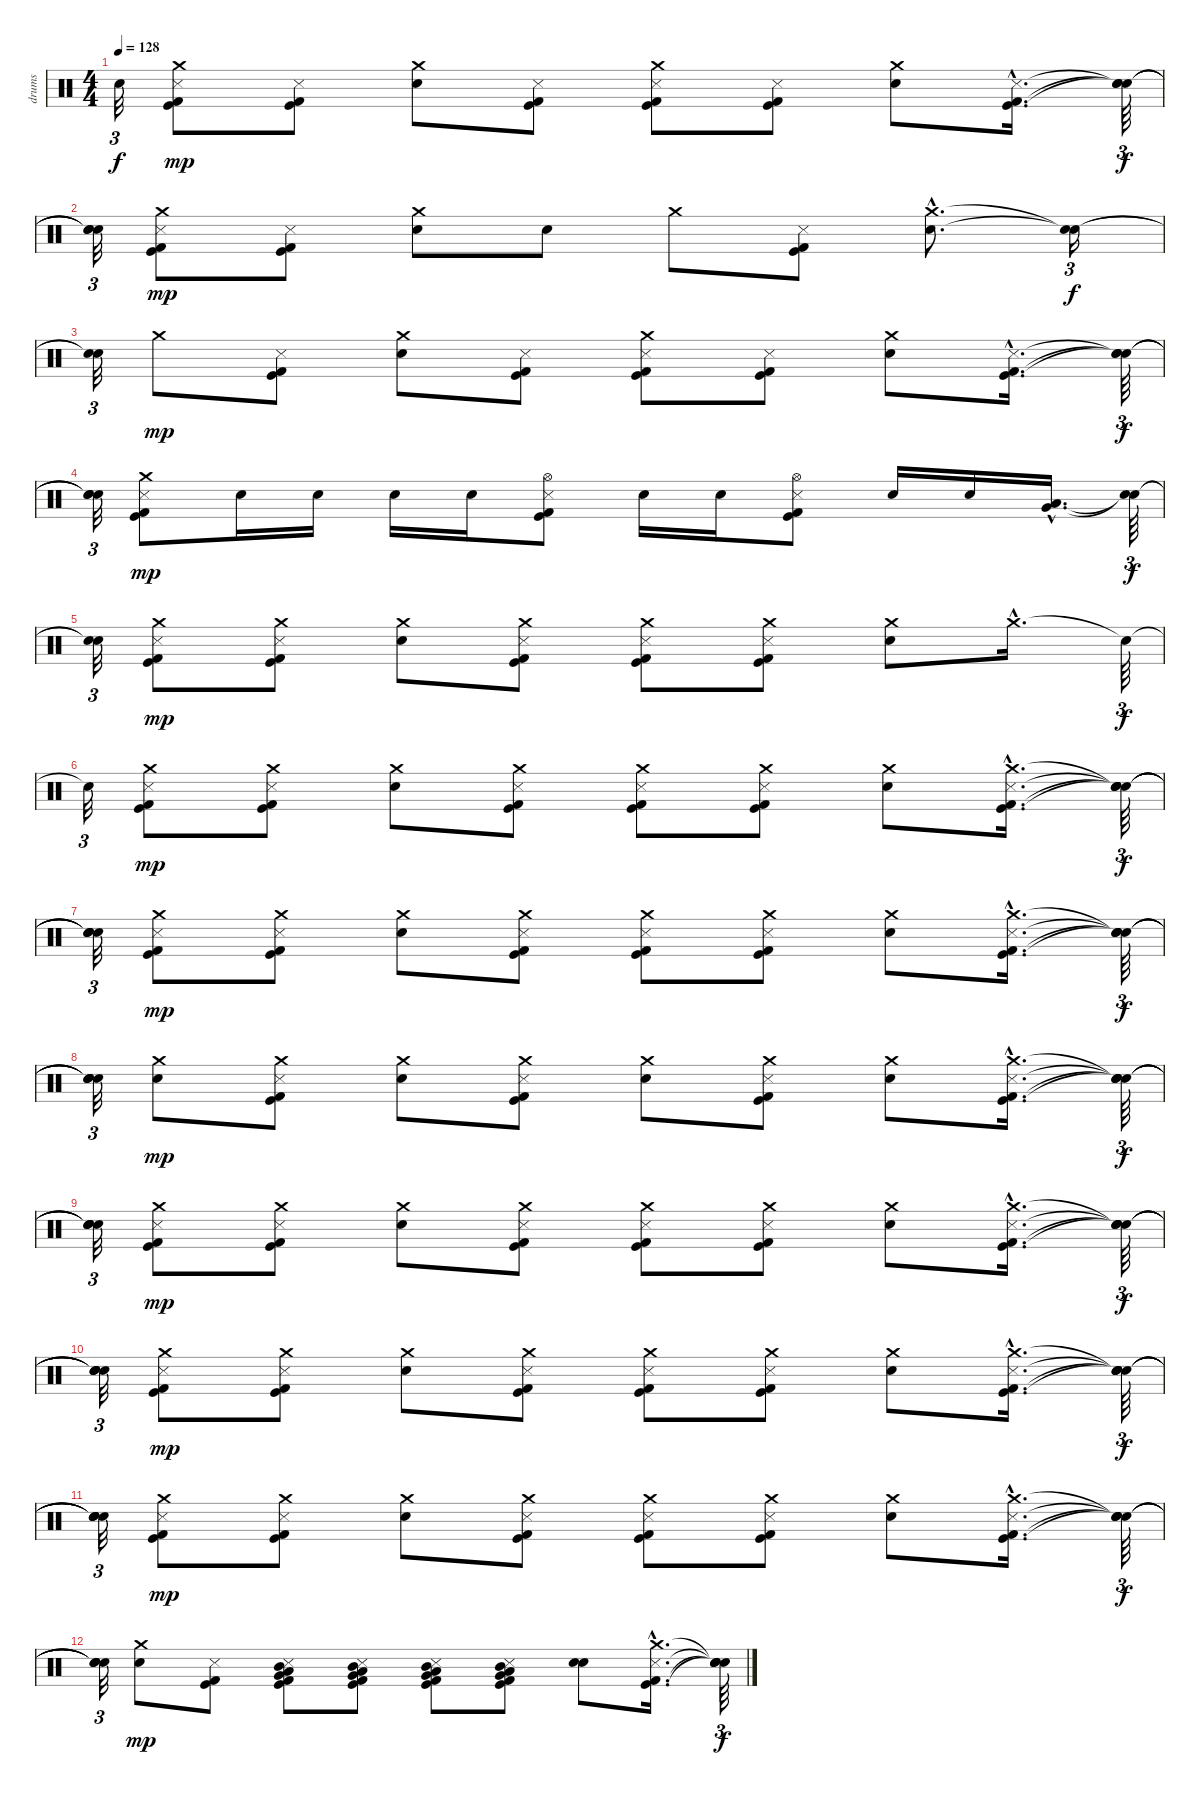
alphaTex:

\track ("drums" "drums") {instrument percussion}
\staff {score}
\articulation defaults
\ts (4 4)
\tempo 128
\clef neutral
\ks c "Snare (hit)"{t}.32{tu (3 2) dy f}
("Crash medium (hit)" "Metronome (hit)" "Kick (hit)" "Kick (hit) 2").8{dy mp} ("Metronome (hit)" "Kick (hit)" "Kick (hit) 2").8 ("Snare (hit) 2" "Crash medium (hit)").8 ("Metronome (hit)" "Kick (hit)" "Kick (hit) 2").8 ("Crash medium (hit)" "Metronome (hit)" "Kick (hit)" "Kick (hit) 2").8 ("Metronome (hit)" "Kick (hit)" "Kick (hit) 2").8 ("Snare (hit) 2" "Crash medium (hit)").8 ("Metronome (hit)"{hac} "Kick (hit)"{hac} "Kick (hit) 2"{hac}).16{d} ("Snare (hit)"{t} "Snare (hit)"{t} "Snare (hit)"{t}).64{tu (3 2) dy f} |
("Snare (hit)"{t} "Snare (hit)"{t} "Snare (hit)"{t}).32{tu (3 2)} ("Crash medium (hit)" "Metronome (hit)" "Kick (hit)" "Kick (hit) 2").8{dy mp} ("Metronome (hit)" "Kick (hit)" "Kick (hit) 2").8 ("Snare (hit) 2" "Crash medium (hit)").8 "Snare (hit) 2".8 "Crash medium (hit)".8 ("Metronome (hit)" "Kick (hit)" "Kick (hit) 2").8 ("Snare (hit) 2"{hac} "Crash medium (hit)"{hac}).8{d} ("Snare (hit)"{t} "Snare (hit)"{t}).16{tu (3 2) dy f} |
("Snare (hit)"{t} "Snare (hit)"{t}).32{tu (3 2)} "Crash medium (hit)".8{dy mp} ("Metronome (hit)" "Kick (hit)" "Kick (hit) 2").8 ("Snare (hit) 2" "Crash medium (hit)").8 ("Metronome (hit)" "Kick (hit)" "Kick (hit) 2").8 ("Crash medium (hit)" "Metronome (hit)" "Kick (hit)" "Kick (hit) 2").8 ("Metronome (hit)" "Kick (hit)" "Kick (hit) 2").8 ("Snare (hit) 2" "Crash medium (hit)").8 ("Metronome (hit)"{hac} "Kick (hit)"{hac} "Kick (hit) 2"{hac}).16{d} ("Snare (hit)"{t} "Snare (hit)"{t} "Snare (hit)"{t}).64{tu (3 2) dy f} |
("Snare (hit)"{t} "Snare (hit)"{t} "Snare (hit)"{t}).32{tu (3 2)} ("Crash medium (hit)" "Metronome (hit)" "Kick (hit)" "Kick (hit) 2").8{dy mp} "Snare (hit) 2".16 "Snare (hit) 2".16 "Snare (hit) 2".16 "Snare (hit) 2".16 ("Hi-Hat (open)" "Metronome (hit)" "Kick (hit)" "Kick (hit) 2").8 "Snare (hit) 2".16 "Snare (hit) 2".16 ("Hi-Hat (open)" "Metronome (hit)" "Kick (hit)" "Kick (hit) 2").8 "Snare (hit) 2".16 "Snare (hit) 2".16 ("Very Low Tom (hit)"{hac} "Low Tom (hit)"{hac}).16{d} ("Snare (hit)"{t} "Snare (hit)"{t}).64{tu (3 2) dy f} |
("Snare (hit)"{t} "Snare (hit)"{t}).32{tu (3 2)} ("Crash medium (hit)" "Metronome (hit)" "Kick (hit)" "Kick (hit) 2").8{dy mp} ("Crash medium (hit)" "Metronome (hit)" "Kick (hit)" "Kick (hit) 2").8 ("Snare (hit) 2" "Crash medium (hit)").8 ("Crash medium (hit)" "Metronome (hit)" "Kick (hit)" "Kick (hit) 2").8 ("Crash medium (hit)" "Metronome (hit)" "Kick (hit)" "Kick (hit) 2").8 ("Crash medium (hit)" "Metronome (hit)" "Kick (hit)" "Kick (hit) 2").8 ("Snare (hit) 2" "Crash medium (hit)").8 "Crash medium (hit)"{hac}.16{d} "Snare (hit)"{t}.64{tu (3 2) dy f} |
"Snare (hit)"{t}.32{tu (3 2)} ("Crash medium (hit)" "Metronome (hit)" "Kick (hit)" "Kick (hit) 2").8{dy mp} ("Crash medium (hit)" "Metronome (hit)" "Kick (hit)" "Kick (hit) 2").8 ("Snare (hit) 2" "Crash medium (hit)").8 ("Crash medium (hit)" "Metronome (hit)" "Kick (hit)" "Kick (hit) 2").8 ("Crash medium (hit)" "Metronome (hit)" "Kick (hit)" "Kick (hit) 2").8 ("Crash medium (hit)" "Metronome (hit)" "Kick (hit)" "Kick (hit) 2").8 ("Snare (hit) 2" "Crash medium (hit)").8 ("Crash medium (hit)"{hac} "Metronome (hit)"{hac} "Kick (hit)"{hac} "Kick (hit) 2"{hac}).16{d} ("Snare (hit)"{t} "Snare (hit)"{t} "Snare (hit)"{t} "Snare (hit)"{t}).64{tu (3 2) dy f} |
("Snare (hit)"{t} "Snare (hit)"{t} "Snare (hit)"{t} "Snare (hit)"{t}).32{tu (3 2)} ("Crash medium (hit)" "Metronome (hit)" "Kick (hit)" "Kick (hit) 2").8{dy mp} ("Crash medium (hit)" "Metronome (hit)" "Kick (hit)" "Kick (hit) 2").8 ("Snare (hit) 2" "Crash medium (hit)").8 ("Crash medium (hit)" "Metronome (hit)" "Kick (hit)" "Kick (hit) 2").8 ("Crash medium (hit)" "Metronome (hit)" "Kick (hit)" "Kick (hit) 2").8 ("Crash medium (hit)" "Metronome (hit)" "Kick (hit)" "Kick (hit) 2").8 ("Snare (hit) 2" "Crash medium (hit)").8 ("Crash medium (hit)"{hac} "Metronome (hit)"{hac} "Kick (hit)"{hac} "Kick (hit) 2"{hac}).16{d} ("Snare (hit)"{t} "Snare (hit)"{t} "Snare (hit)"{t} "Snare (hit)"{t}).64{tu (3 2) dy f} |
("Snare (hit)"{t} "Snare (hit)"{t} "Snare (hit)"{t} "Snare (hit)"{t}).32{tu (3 2)} ("Snare (hit) 2" "Crash medium (hit)").8{dy mp} ("Crash medium (hit)" "Metronome (hit)" "Kick (hit)" "Kick (hit) 2").8 ("Snare (hit) 2" "Crash medium (hit)").8 ("Crash medium (hit)" "Metronome (hit)" "Kick (hit)" "Kick (hit) 2").8 ("Snare (hit) 2" "Crash medium (hit)").8 ("Crash medium (hit)" "Metronome (hit)" "Kick (hit)" "Kick (hit) 2").8 ("Snare (hit) 2" "Crash medium (hit)").8 ("Crash medium (hit)"{hac} "Metronome (hit)"{hac} "Kick (hit)"{hac} "Kick (hit) 2"{hac}).16{d} ("Snare (hit)"{t} "Snare (hit)"{t} "Snare (hit)"{t} "Snare (hit)"{t}).64{tu (3 2) dy f} |
("Snare (hit)"{t} "Snare (hit)"{t} "Snare (hit)"{t} "Snare (hit)"{t}).32{tu (3 2)} ("Crash medium (hit)" "Metronome (hit)" "Kick (hit)" "Kick (hit) 2").8{dy mp} ("Crash medium (hit)" "Metronome (hit)" "Kick (hit)" "Kick (hit) 2").8 ("Snare (hit) 2" "Crash medium (hit)").8 ("Crash medium (hit)" "Metronome (hit)" "Kick (hit)" "Kick (hit) 2").8 ("Crash medium (hit)" "Metronome (hit)" "Kick (hit)" "Kick (hit) 2").8 ("Crash medium (hit)" "Metronome (hit)" "Kick (hit)" "Kick (hit) 2").8 ("Snare (hit) 2" "Crash medium (hit)").8 ("Crash medium (hit)"{hac} "Metronome (hit)"{hac} "Kick (hit)"{hac} "Kick (hit) 2"{hac}).16{d} ("Snare (hit)"{t} "Snare (hit)"{t} "Snare (hit)"{t} "Snare (hit)"{t}).64{tu (3 2) dy f} |
("Snare (hit)"{t} "Snare (hit)"{t} "Snare (hit)"{t} "Snare (hit)"{t}).32{tu (3 2)} ("Crash medium (hit)" "Metronome (hit)" "Kick (hit)" "Kick (hit) 2").8{dy mp} ("Crash medium (hit)" "Metronome (hit)" "Kick (hit)" "Kick (hit) 2").8 ("Snare (hit) 2" "Crash medium (hit)").8 ("Crash medium (hit)" "Metronome (hit)" "Kick (hit)" "Kick (hit) 2").8 ("Crash medium (hit)" "Metronome (hit)" "Kick (hit)" "Kick (hit) 2").8 ("Crash medium (hit)" "Metronome (hit)" "Kick (hit)" "Kick (hit) 2").8 ("Snare (hit) 2" "Crash medium (hit)").8 ("Crash medium (hit)"{hac} "Metronome (hit)"{hac} "Kick (hit)"{hac} "Kick (hit) 2"{hac}).16{d} ("Snare (hit)"{t} "Snare (hit)"{t} "Snare (hit)"{t} "Snare (hit)"{t}).64{tu (3 2) dy f} |
("Snare (hit)"{t} "Snare (hit)"{t} "Snare (hit)"{t} "Snare (hit)"{t}).32{tu (3 2)} ("Crash medium (hit)" "Metronome (hit)" "Kick (hit)" "Kick (hit) 2").8{dy mp} ("Crash medium (hit)" "Metronome (hit)" "Kick (hit)" "Kick (hit) 2").8 ("Snare (hit) 2" "Crash medium (hit)").8 ("Crash medium (hit)" "Metronome (hit)" "Kick (hit)" "Kick (hit) 2").8 ("Crash medium (hit)" "Metronome (hit)" "Kick (hit)" "Kick (hit) 2").8 ("Crash medium (hit)" "Metronome (hit)" "Kick (hit)" "Kick (hit) 2").8 ("Snare (hit) 2" "Crash medium (hit)").8 ("Crash medium (hit)"{hac} "Metronome (hit)"{hac} "Kick (hit)"{hac} "Kick (hit) 2"{hac}).16{d} ("Snare (hit)"{t} "Snare (hit)"{t} "Snare (hit)"{t} "Snare (hit)"{t}).64{tu (3 2) dy f} |
("Snare (hit)"{t} "Snare (hit)"{t} "Snare (hit)"{t} "Snare (hit)"{t}).32{tu (3 2)} ("Snare (hit) 2" "Crash medium (hit)").8{dy mp} ("Metronome (hit)" "Kick (hit)" "Kick (hit) 2").8 ("Very Low Tom (hit)" "Low Tom (hit)" "Mid Tom (hit)" "Metronome (hit)" "Kick (hit)" "Kick (hit) 2").8 ("Very Low Tom (hit)" "Low Tom (hit)" "Mid Tom (hit)" "Metronome (hit)" "Kick (hit)" "Kick (hit) 2").8 ("Very Low Tom (hit)" "Low Tom (hit)" "Mid Tom (hit)" "Metronome (hit)" "Kick (hit)" "Kick (hit) 2").8 ("Very Low Tom (hit)" "Low Tom (hit)" "Mid Tom (hit)" "Metronome (hit)" "Kick (hit)" "Kick (hit) 2").8 ("Snare (hit) 2" "Snare (hit) 2").8 ("Crash medium (hit)"{hac} "Metronome (hit)"{hac} "Kick (hit)"{hac} "Kick (hit) 2"{hac}).16{d} ("Snare (hit)"{t} "Snare (hit)"{t} "Snare (hit)"{t} "Snare (hit)"{t}).64{tu (3 2) dy f}
